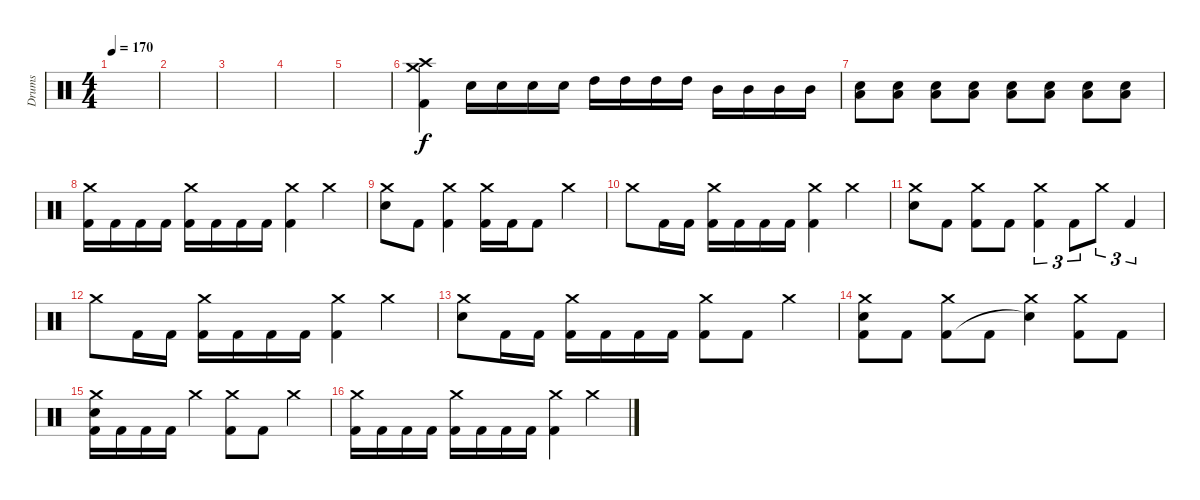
\track ("Drums" "Drums") {instrument percussion}
\staff {score}
\articulation defaults
\ts (4 4)
\tempo 170
\clef neutral
\ks c
|
|
|
|
|
("Crash medium (hit)" "Crash high (hit)" "Kick (hit) 2").4 "Snare (hit) 2".16 "Snare (hit) 2".16 "Snare (hit) 2".16 "Snare (hit) 2".16 "High Tom (hit)".16 "High Tom (hit)".16 "High Tom (hit)".16 "High Tom (hit)".16 "Mid Tom (hit)".16 "Mid Tom (hit)".16 "Mid Tom (hit)".16 "Mid Tom (hit)".16 |
("Low Tom (hit)" "Snare (hit) 2").8 ("Low Tom (hit)" "Snare (hit) 2").8 ("Low Tom (hit)" "Snare (hit) 2").8 ("Low Tom (hit)" "Snare (hit) 2").8 ("Low Tom (hit)" "Snare (hit) 2").8 ("Low Tom (hit)" "Snare (hit) 2").8 ("Low Tom (hit)" "Snare (hit) 2").8 ("Low Tom (hit)" "Snare (hit) 2").8 |
("Crash medium (hit)" "Kick (hit) 2").16 "Kick (hit) 2".16 "Kick (hit) 2".16 "Kick (hit) 2".16 ("Crash medium (hit)" "Kick (hit) 2").16 "Kick (hit) 2".16 "Kick (hit) 2".16 "Kick (hit) 2".16 ("Crash medium (hit)" "Kick (hit) 2").4 "Crash medium (hit)".4 |
("Crash medium (hit)" "Snare (hit) 2").8 "Kick (hit) 2".8 ("Crash medium (hit)" "Kick (hit) 2").4 ("Crash medium (hit)" "Kick (hit) 2").16 "Kick (hit) 2".16 "Kick (hit) 2".8 "Crash medium (hit)".4 |
"Crash medium (hit)".8 "Kick (hit) 2".16 "Kick (hit) 2".16 ("Crash medium (hit)" "Kick (hit) 2").16 "Kick (hit) 2".16 "Kick (hit) 2".16 "Kick (hit) 2".16 ("Crash medium (hit)" "Kick (hit) 2").4 "Crash medium (hit)".4 |
("Crash medium (hit)" "Snare (hit) 2").8 "Kick (hit) 2".8 ("Crash medium (hit)" "Kick (hit) 2").8 "Kick (hit) 2".8 ("Crash medium (hit)" "Kick (hit) 2").4{tu (3 2)} "Kick (hit) 2".8{tu (3 2) beam merge} "Crash medium (hit)".8{tu (3 2)} "Kick (hit) 2".4{tu (3 2)} |
"Crash medium (hit)".8 "Kick (hit) 2".16 "Kick (hit) 2".16 ("Crash medium (hit)" "Kick (hit) 2").16 "Kick (hit) 2".16 "Kick (hit) 2".16 "Kick (hit) 2".16 ("Crash medium (hit)" "Kick (hit) 2").4 "Crash medium (hit)".4 |
("Crash medium (hit)" "Snare (hit) 2").8 "Kick (hit) 2".16 "Kick (hit) 2".16 ("Crash medium (hit)" "Kick (hit) 2").16 "Kick (hit) 2".16 "Kick (hit) 2".16 "Kick (hit) 2".16 ("Crash medium (hit)" "Kick (hit) 2").8 "Kick (hit) 2".8 "Crash medium (hit)".4 |
("Crash medium (hit)" "Snare (hit) 2" "Kick (hit) 2").8 "Kick (hit) 2".8 ("Crash medium (hit)" "Kick (hit) 2").8 "Kick (hit) 2".8 ("Crash medium (hit)" "Snare (hit)"{t}).4 ("Crash medium (hit)" "Kick (hit) 2").8 "Kick (hit) 2".8 |
("Crash medium (hit)" "Snare (hit) 2" "Kick (hit) 2").16 "Kick (hit) 2".16 "Kick (hit) 2".16 "Kick (hit) 2".16 "Crash medium (hit)".4 ("Crash medium (hit)" "Kick (hit) 2").8 "Kick (hit) 2".8 "Crash medium (hit)".4 |
("Crash medium (hit)" "Kick (hit) 2").16 "Kick (hit) 2".16 "Kick (hit) 2".16 "Kick (hit) 2".16 ("Crash medium (hit)" "Kick (hit) 2").16 "Kick (hit) 2".16 "Kick (hit) 2".16 "Kick (hit) 2".16 ("Crash medium (hit)" "Kick (hit) 2").4 "Crash medium (hit)".4
